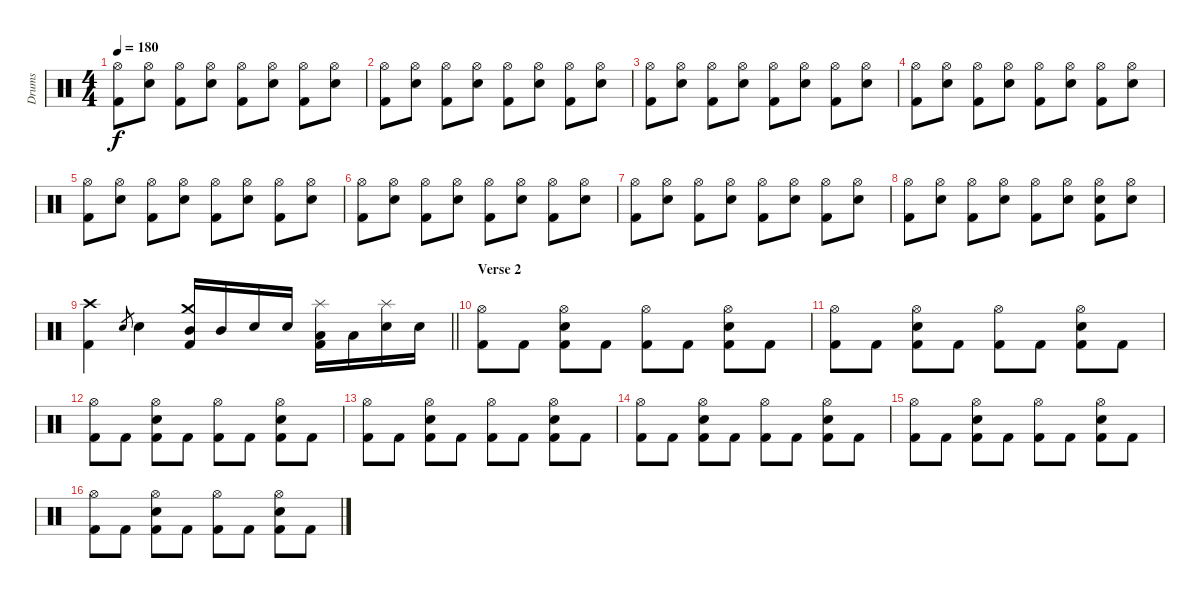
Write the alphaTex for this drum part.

\track ("Drums" "Drums") {instrument percussion}
\staff {score}
\articulation defaults
\ts (4 4)
\tempo 180
\clef neutral
\ks c
("Hi-Hat (open)" "Kick (hit) 2").8{dy f} ("Hi-Hat (open)" "Snare (hit) 2").8 ("Hi-Hat (open)" "Kick (hit) 2").8 ("Hi-Hat (open)" "Snare (hit) 2").8 ("Hi-Hat (open)" "Kick (hit) 2").8 ("Hi-Hat (open)" "Snare (hit) 2").8 ("Hi-Hat (open)" "Kick (hit) 2").8 ("Hi-Hat (open)" "Snare (hit) 2").8 |
("Hi-Hat (open)" "Kick (hit) 2").8 ("Hi-Hat (open)" "Snare (hit) 2").8 ("Hi-Hat (open)" "Kick (hit) 2").8 ("Hi-Hat (open)" "Snare (hit) 2").8 ("Hi-Hat (open)" "Kick (hit) 2").8 ("Hi-Hat (open)" "Snare (hit) 2").8 ("Hi-Hat (open)" "Kick (hit) 2").8 ("Hi-Hat (open)" "Snare (hit) 2").8 |
("Hi-Hat (open)" "Kick (hit) 2").8 ("Hi-Hat (open)" "Snare (hit) 2").8 ("Hi-Hat (open)" "Kick (hit) 2").8 ("Hi-Hat (open)" "Snare (hit) 2").8 ("Hi-Hat (open)" "Kick (hit) 2").8 ("Hi-Hat (open)" "Snare (hit) 2").8 ("Hi-Hat (open)" "Kick (hit) 2").8 ("Hi-Hat (open)" "Snare (hit) 2").8 |
("Hi-Hat (open)" "Kick (hit) 2").8 ("Hi-Hat (open)" "Snare (hit) 2").8 ("Hi-Hat (open)" "Kick (hit) 2").8 ("Hi-Hat (open)" "Snare (hit) 2").8 ("Hi-Hat (open)" "Kick (hit) 2").8 ("Hi-Hat (open)" "Snare (hit) 2").8 ("Hi-Hat (open)" "Kick (hit) 2").8 ("Hi-Hat (open)" "Snare (hit) 2").8 |
("Hi-Hat (open)" "Kick (hit) 2").8 ("Hi-Hat (open)" "Snare (hit) 2").8 ("Hi-Hat (open)" "Kick (hit) 2").8 ("Hi-Hat (open)" "Snare (hit) 2").8 ("Hi-Hat (open)" "Kick (hit) 2").8 ("Hi-Hat (open)" "Snare (hit) 2").8 ("Hi-Hat (open)" "Kick (hit) 2").8 ("Hi-Hat (open)" "Snare (hit) 2").8 |
("Hi-Hat (open)" "Kick (hit) 2").8 ("Hi-Hat (open)" "Snare (hit) 2").8 ("Hi-Hat (open)" "Kick (hit) 2").8 ("Hi-Hat (open)" "Snare (hit) 2").8 ("Hi-Hat (open)" "Kick (hit) 2").8 ("Hi-Hat (open)" "Snare (hit) 2").8 ("Hi-Hat (open)" "Kick (hit) 2").8 ("Hi-Hat (open)" "Snare (hit) 2").8 |
("Hi-Hat (open)" "Kick (hit) 2").8 ("Hi-Hat (open)" "Snare (hit) 2").8 ("Hi-Hat (open)" "Kick (hit) 2").8 ("Hi-Hat (open)" "Snare (hit) 2").8 ("Hi-Hat (open)" "Kick (hit) 2").8 ("Hi-Hat (open)" "Snare (hit) 2").8 ("Hi-Hat (open)" "Kick (hit) 2").8 ("Hi-Hat (open)" "Snare (hit) 2").8 |
("Hi-Hat (open)" "Kick (hit) 2").8 ("Hi-Hat (open)" "Snare (hit) 2").8 ("Hi-Hat (open)" "Kick (hit) 2").8 ("Hi-Hat (open)" "Snare (hit) 2").8 ("Hi-Hat (open)" "Kick (hit) 2").8 ("Hi-Hat (open)" "Snare (hit) 2").8 ("Hi-Hat (open)" "Snare (hit) 2" "Kick (hit) 2").8 ("Hi-Hat (open)" "Snare (hit) 2").8 |
\barLineRight lightlight
("Crash high (hit)" "Kick (hit) 2").4 "Snare (hit) 2".8{gr} "Snare (hit) 2".4 ("Crash medium (hit)" "Mid Tom (hit)" "Kick (hit) 2").16 "Mid Tom (hit)".16 "Snare (hit) 2".16 "Snare (hit) 2".16 ("Splash (hit)" "Low Tom (hit)" "Kick (hit) 2").16 "Low Tom (hit)".16 ("Splash (hit)" "Snare (hit) 2").16 "Snare (hit) 2".16 |
\section ("" "Verse 2")
("Hi-Hat (open)" "Kick (hit) 2").8 "Kick (hit) 2".8 ("Hi-Hat (open)" "Snare (hit) 2" "Kick (hit) 2").8 "Kick (hit) 2".8 ("Hi-Hat (open)" "Kick (hit) 2").8 "Kick (hit) 2".8 ("Hi-Hat (open)" "Snare (hit) 2" "Kick (hit) 2").8 "Kick (hit) 2".8 |
("Hi-Hat (open)" "Kick (hit) 2").8 "Kick (hit) 2".8 ("Hi-Hat (open)" "Snare (hit) 2" "Kick (hit) 2").8 "Kick (hit) 2".8 ("Hi-Hat (open)" "Kick (hit) 2").8 "Kick (hit) 2".8 ("Hi-Hat (open)" "Snare (hit) 2" "Kick (hit) 2").8 "Kick (hit) 2".8 |
("Hi-Hat (open)" "Kick (hit) 2").8 "Kick (hit) 2".8 ("Hi-Hat (open)" "Snare (hit) 2" "Kick (hit) 2").8 "Kick (hit) 2".8 ("Hi-Hat (open)" "Kick (hit) 2").8 "Kick (hit) 2".8 ("Hi-Hat (open)" "Snare (hit) 2" "Kick (hit) 2").8 "Kick (hit) 2".8 |
("Hi-Hat (open)" "Kick (hit) 2").8 "Kick (hit) 2".8 ("Hi-Hat (open)" "Snare (hit) 2" "Kick (hit) 2").8 "Kick (hit) 2".8 ("Hi-Hat (open)" "Kick (hit) 2").8 "Kick (hit) 2".8 ("Hi-Hat (open)" "Snare (hit) 2" "Kick (hit) 2").8 "Kick (hit) 2".8 |
("Hi-Hat (open)" "Kick (hit) 2").8 "Kick (hit) 2".8 ("Hi-Hat (open)" "Snare (hit) 2" "Kick (hit) 2").8 "Kick (hit) 2".8 ("Hi-Hat (open)" "Kick (hit) 2").8 "Kick (hit) 2".8 ("Hi-Hat (open)" "Snare (hit) 2" "Kick (hit) 2").8 "Kick (hit) 2".8 |
("Hi-Hat (open)" "Kick (hit) 2").8 "Kick (hit) 2".8 ("Hi-Hat (open)" "Snare (hit) 2" "Kick (hit) 2").8 "Kick (hit) 2".8 ("Hi-Hat (open)" "Kick (hit) 2").8 "Kick (hit) 2".8 ("Hi-Hat (open)" "Snare (hit) 2" "Kick (hit) 2").8 "Kick (hit) 2".8 |
("Hi-Hat (open)" "Kick (hit) 2").8 "Kick (hit) 2".8 ("Hi-Hat (open)" "Snare (hit) 2" "Kick (hit) 2").8 "Kick (hit) 2".8 ("Hi-Hat (open)" "Kick (hit) 2").8 "Kick (hit) 2".8 ("Hi-Hat (open)" "Snare (hit) 2" "Kick (hit) 2").8 "Kick (hit) 2".8
